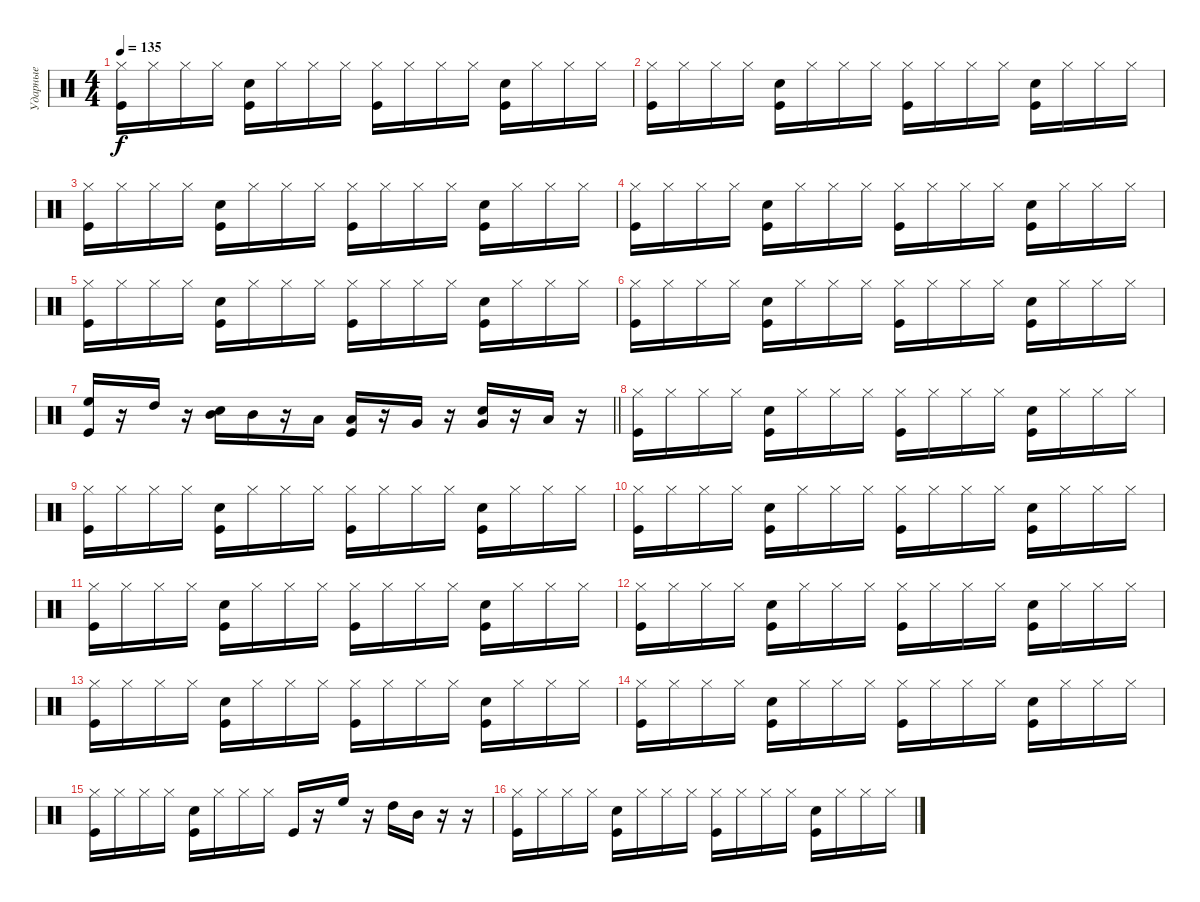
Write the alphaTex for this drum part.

\track ("Ударные" "Ударные") {instrument percussion}
\staff {score}
\articulation defaults
\ts (4 4)
\tempo 135
\clef neutral
\ks c
("Hi-Hat (closed)" "Kick (hit)").16{dy f} "Hi-Hat (closed)".16 "Hi-Hat (closed)".16 "Hi-Hat (closed)".16 ("Kick (hit)" "Snare (hit) 2").16 "Hi-Hat (closed)".16 "Hi-Hat (closed)".16 "Hi-Hat (closed)".16 ("Hi-Hat (closed)" "Kick (hit)").16 "Hi-Hat (closed)".16 "Hi-Hat (closed)".16 "Hi-Hat (closed)".16 ("Kick (hit)" "Snare (hit) 2").16 "Hi-Hat (closed)".16 "Hi-Hat (closed)".16 "Hi-Hat (closed)".16 |
("Hi-Hat (closed)" "Kick (hit)").16 "Hi-Hat (closed)".16 "Hi-Hat (closed)".16 "Hi-Hat (closed)".16 ("Kick (hit)" "Snare (hit) 2").16 "Hi-Hat (closed)".16 "Hi-Hat (closed)".16 "Hi-Hat (closed)".16 ("Hi-Hat (closed)" "Kick (hit)").16 "Hi-Hat (closed)".16 "Hi-Hat (closed)".16 "Hi-Hat (closed)".16 ("Kick (hit)" "Snare (hit) 2").16 "Hi-Hat (closed)".16 "Hi-Hat (closed)".16 "Hi-Hat (closed)".16 |
("Hi-Hat (closed)" "Kick (hit)").16 "Hi-Hat (closed)".16 "Hi-Hat (closed)".16 "Hi-Hat (closed)".16 ("Kick (hit)" "Snare (hit) 2").16 "Hi-Hat (closed)".16 "Hi-Hat (closed)".16 "Hi-Hat (closed)".16 ("Hi-Hat (closed)" "Kick (hit)").16 "Hi-Hat (closed)".16 "Hi-Hat (closed)".16 "Hi-Hat (closed)".16 ("Kick (hit)" "Snare (hit) 2").16 "Hi-Hat (closed)".16 "Hi-Hat (closed)".16 "Hi-Hat (closed)".16 |
("Hi-Hat (closed)" "Kick (hit)").16 "Hi-Hat (closed)".16 "Hi-Hat (closed)".16 "Hi-Hat (closed)".16 ("Kick (hit)" "Snare (hit) 2").16 "Hi-Hat (closed)".16 "Hi-Hat (closed)".16 "Hi-Hat (closed)".16 ("Hi-Hat (closed)" "Kick (hit)").16 "Hi-Hat (closed)".16 "Hi-Hat (closed)".16 "Hi-Hat (closed)".16 ("Kick (hit)" "Snare (hit) 2").16 "Hi-Hat (closed)".16 "Hi-Hat (closed)".16 "Hi-Hat (closed)".16 |
("Hi-Hat (closed)" "Kick (hit)").16 "Hi-Hat (closed)".16 "Hi-Hat (closed)".16 "Hi-Hat (closed)".16 ("Kick (hit)" "Snare (hit) 2").16 "Hi-Hat (closed)".16 "Hi-Hat (closed)".16 "Hi-Hat (closed)".16 ("Hi-Hat (closed)" "Kick (hit)").16 "Hi-Hat (closed)".16 "Hi-Hat (closed)".16 "Hi-Hat (closed)".16 ("Kick (hit)" "Snare (hit) 2").16 "Hi-Hat (closed)".16 "Hi-Hat (closed)".16 "Hi-Hat (closed)".16 |
("Hi-Hat (closed)" "Kick (hit)").16 "Hi-Hat (closed)".16 "Hi-Hat (closed)".16 "Hi-Hat (closed)".16 ("Kick (hit)" "Snare (hit) 2").16 "Hi-Hat (closed)".16 "Hi-Hat (closed)".16 "Hi-Hat (closed)".16 ("Hi-Hat (closed)" "Kick (hit)").16 "Hi-Hat (closed)".16 "Hi-Hat (closed)".16 "Hi-Hat (closed)".16 ("Kick (hit)" "Snare (hit) 2").16 "Hi-Hat (closed)".16 "Hi-Hat (closed)".16 "Hi-Hat (closed)".16 |
\barLineRight lightlight
("Kick (hit)" "High Floor Tom (hit)").16 r.16 "High Tom (hit)".16 r.16 ("Snare (hit) 2" "Mid Tom (hit)").16 "Mid Tom (hit)".16 r.16 "Low Tom (hit)".16 ("Kick (hit)" "Low Tom (hit)").16 r.16 "Very Low Tom (hit)".16 r.16 ("Very Low Tom (hit)" "Snare (hit) 2").16 r.16 "Low Floor Tom (hit)".16 r.16 |
("Hi-Hat (closed)" "Kick (hit)").16 "Hi-Hat (closed)".16 "Hi-Hat (closed)".16 "Hi-Hat (closed)".16 ("Kick (hit)" "Snare (hit) 2").16 "Hi-Hat (closed)".16 "Hi-Hat (closed)".16 "Hi-Hat (closed)".16 ("Hi-Hat (closed)" "Kick (hit)").16 "Hi-Hat (closed)".16 "Hi-Hat (closed)".16 "Hi-Hat (closed)".16 ("Kick (hit)" "Snare (hit) 2").16 "Hi-Hat (closed)".16 "Hi-Hat (closed)".16 "Hi-Hat (closed)".16 |
("Hi-Hat (closed)" "Kick (hit)").16 "Hi-Hat (closed)".16 "Hi-Hat (closed)".16 "Hi-Hat (closed)".16 ("Kick (hit)" "Snare (hit) 2").16 "Hi-Hat (closed)".16 "Hi-Hat (closed)".16 "Hi-Hat (closed)".16 ("Hi-Hat (closed)" "Kick (hit)").16 "Hi-Hat (closed)".16 "Hi-Hat (closed)".16 "Hi-Hat (closed)".16 ("Kick (hit)" "Snare (hit) 2").16 "Hi-Hat (closed)".16 "Hi-Hat (closed)".16 "Hi-Hat (closed)".16 |
("Hi-Hat (closed)" "Kick (hit)").16 "Hi-Hat (closed)".16 "Hi-Hat (closed)".16 "Hi-Hat (closed)".16 ("Kick (hit)" "Snare (hit) 2").16 "Hi-Hat (closed)".16 "Hi-Hat (closed)".16 "Hi-Hat (closed)".16 ("Hi-Hat (closed)" "Kick (hit)").16 "Hi-Hat (closed)".16 "Hi-Hat (closed)".16 "Hi-Hat (closed)".16 ("Kick (hit)" "Snare (hit) 2").16 "Hi-Hat (closed)".16 "Hi-Hat (closed)".16 "Hi-Hat (closed)".16 |
("Hi-Hat (closed)" "Kick (hit)").16 "Hi-Hat (closed)".16 "Hi-Hat (closed)".16 "Hi-Hat (closed)".16 ("Kick (hit)" "Snare (hit) 2").16 "Hi-Hat (closed)".16 "Hi-Hat (closed)".16 "Hi-Hat (closed)".16 ("Hi-Hat (closed)" "Kick (hit)").16 "Hi-Hat (closed)".16 "Hi-Hat (closed)".16 "Hi-Hat (closed)".16 ("Kick (hit)" "Snare (hit) 2").16 "Hi-Hat (closed)".16 "Hi-Hat (closed)".16 "Hi-Hat (closed)".16 |
("Hi-Hat (closed)" "Kick (hit)").16 "Hi-Hat (closed)".16 "Hi-Hat (closed)".16 "Hi-Hat (closed)".16 ("Kick (hit)" "Snare (hit) 2").16 "Hi-Hat (closed)".16 "Hi-Hat (closed)".16 "Hi-Hat (closed)".16 ("Hi-Hat (closed)" "Kick (hit)").16 "Hi-Hat (closed)".16 "Hi-Hat (closed)".16 "Hi-Hat (closed)".16 ("Kick (hit)" "Snare (hit) 2").16 "Hi-Hat (closed)".16 "Hi-Hat (closed)".16 "Hi-Hat (closed)".16 |
("Hi-Hat (closed)" "Kick (hit)").16 "Hi-Hat (closed)".16 "Hi-Hat (closed)".16 "Hi-Hat (closed)".16 ("Kick (hit)" "Snare (hit) 2").16 "Hi-Hat (closed)".16 "Hi-Hat (closed)".16 "Hi-Hat (closed)".16 ("Hi-Hat (closed)" "Kick (hit)").16 "Hi-Hat (closed)".16 "Hi-Hat (closed)".16 "Hi-Hat (closed)".16 ("Kick (hit)" "Snare (hit) 2").16 "Hi-Hat (closed)".16 "Hi-Hat (closed)".16 "Hi-Hat (closed)".16 |
("Hi-Hat (closed)" "Kick (hit)").16 "Hi-Hat (closed)".16 "Hi-Hat (closed)".16 "Hi-Hat (closed)".16 ("Kick (hit)" "Snare (hit) 2").16 "Hi-Hat (closed)".16 "Hi-Hat (closed)".16 "Hi-Hat (closed)".16 ("Hi-Hat (closed)" "Kick (hit)").16 "Hi-Hat (closed)".16 "Hi-Hat (closed)".16 "Hi-Hat (closed)".16 ("Kick (hit)" "Snare (hit) 2").16 "Hi-Hat (closed)".16 "Hi-Hat (closed)".16 "Hi-Hat (closed)".16 |
("Hi-Hat (closed)" "Kick (hit)").16 "Hi-Hat (closed)".16 "Hi-Hat (closed)".16 "Hi-Hat (closed)".16 ("Kick (hit)" "Snare (hit) 2").16 "Hi-Hat (closed)".16 "Hi-Hat (closed)".16 "Hi-Hat (closed)".16 "Kick (hit)".16 r.16 "High Floor Tom (hit)".16 r.16 "High Tom (hit)".16 "Mid Tom (hit)".16 r.16 r.16 |
("Hi-Hat (closed)" "Kick (hit)").16 "Hi-Hat (closed)".16 "Hi-Hat (closed)".16 "Hi-Hat (closed)".16 ("Kick (hit)" "Snare (hit) 2").16 "Hi-Hat (closed)".16 "Hi-Hat (closed)".16 "Hi-Hat (closed)".16 ("Hi-Hat (closed)" "Kick (hit)").16 "Hi-Hat (closed)".16 "Hi-Hat (closed)".16 "Hi-Hat (closed)".16 ("Kick (hit)" "Snare (hit) 2").16 "Hi-Hat (closed)".16 "Hi-Hat (closed)".16 "Hi-Hat (closed)".16
